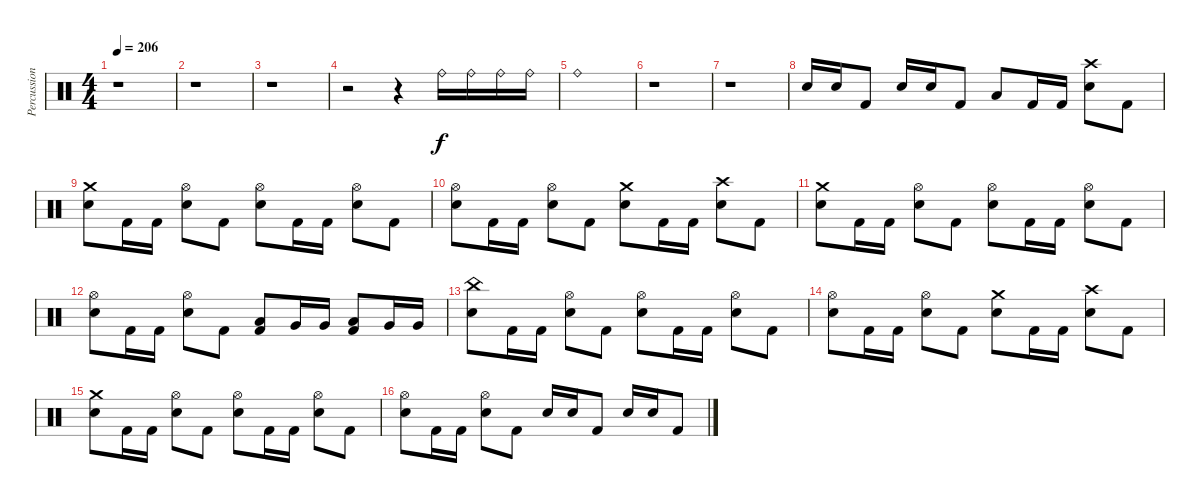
\track ("Percussion" "Percussion") {instrument percussion}
\staff {score}
\articulation defaults
\ts (4 4)
\tempo 206
\clef neutral
\ks c
r.1{dy f} |
r.1 |
r.1 |
r.2 r.4 "Ride (bell)".16 "Ride (bell)".16 "Ride (bell)".16 "Ride (bell)".16 |
"Ride (bell)".1 |
r.1 |
r.1 |
"Electric Snare (hit)".16 "Electric Snare (hit)".16 "Kick (hit) 2".8 "Electric Snare (hit)".16 "Electric Snare (hit)".16 "Kick (hit) 2".8 "Low Tom (hit)".8 "Kick (hit) 2".16 "Kick (hit) 2".16 ("Crash high (hit)" "Electric Snare (hit)").8 "Kick (hit) 2".8 |
("Crash medium (hit)" "Electric Snare (hit)").8 "Kick (hit) 2".16 "Kick (hit) 2".16 ("Hi-Hat (open)" "Electric Snare (hit)").8 "Kick (hit) 2".8 ("Hi-Hat (open)" "Electric Snare (hit)").8 "Kick (hit) 2".16 "Kick (hit) 2".16 ("Hi-Hat (open)" "Electric Snare (hit)").8 "Kick (hit) 2".8 |
("Hi-Hat (open)" "Electric Snare (hit)").8 "Kick (hit) 2".16 "Kick (hit) 2".16 ("Hi-Hat (open)" "Electric Snare (hit)").8 "Kick (hit) 2".8 ("Crash medium (hit)" "Electric Snare (hit)").8 "Kick (hit) 2".16 "Kick (hit) 2".16 ("Crash high (hit)" "Electric Snare (hit)").8 "Kick (hit) 2".8 |
("Crash medium (hit)" "Electric Snare (hit)").8 "Kick (hit) 2".16 "Kick (hit) 2".16 ("Hi-Hat (open)" "Electric Snare (hit)").8 "Kick (hit) 2".8 ("Hi-Hat (open)" "Electric Snare (hit)").8 "Kick (hit) 2".16 "Kick (hit) 2".16 ("Hi-Hat (open)" "Electric Snare (hit)").8 "Kick (hit) 2".8 |
("Hi-Hat (open)" "Electric Snare (hit)").8 "Kick (hit) 2".16 "Kick (hit) 2".16 ("Hi-Hat (open)" "Electric Snare (hit)").8 "Kick (hit) 2".8 ("Low Tom (hit)" "Kick (hit) 2").8 "Very Low Tom (hit)".16 "Very Low Tom (hit)".16 ("Low Tom (hit)" "Kick (hit) 2").8 "Very Low Tom (hit)".16 "Very Low Tom (hit)".16 |
("China (hit)" "Electric Snare (hit)").8 "Kick (hit) 2".16 "Kick (hit) 2".16 ("Hi-Hat (open)" "Electric Snare (hit)").8 "Kick (hit) 2".8 ("Hi-Hat (open)" "Electric Snare (hit)").8 "Kick (hit) 2".16 "Kick (hit) 2".16 ("Hi-Hat (open)" "Electric Snare (hit)").8 "Kick (hit) 2".8 |
("Hi-Hat (open)" "Electric Snare (hit)").8 "Kick (hit) 2".16 "Kick (hit) 2".16 ("Hi-Hat (open)" "Electric Snare (hit)").8 "Kick (hit) 2".8 ("Crash medium (hit)" "Electric Snare (hit)").8 "Kick (hit) 2".16 "Kick (hit) 2".16 ("Crash high (hit)" "Electric Snare (hit)").8 "Kick (hit) 2".8 |
("Crash medium (hit)" "Electric Snare (hit)").8 "Kick (hit) 2".16 "Kick (hit) 2".16 ("Hi-Hat (open)" "Electric Snare (hit)").8 "Kick (hit) 2".8 ("Hi-Hat (open)" "Electric Snare (hit)").8 "Kick (hit) 2".16 "Kick (hit) 2".16 ("Hi-Hat (open)" "Electric Snare (hit)").8 "Kick (hit) 2".8 |
("Hi-Hat (open)" "Electric Snare (hit)").8 "Kick (hit) 2".16 "Kick (hit) 2".16 ("Hi-Hat (open)" "Electric Snare (hit)").8 "Kick (hit) 2".8 "Electric Snare (hit)".16 "Electric Snare (hit)".16 "Kick (hit) 2".8 "Electric Snare (hit)".16 "Electric Snare (hit)".16 "Kick (hit) 2".8
